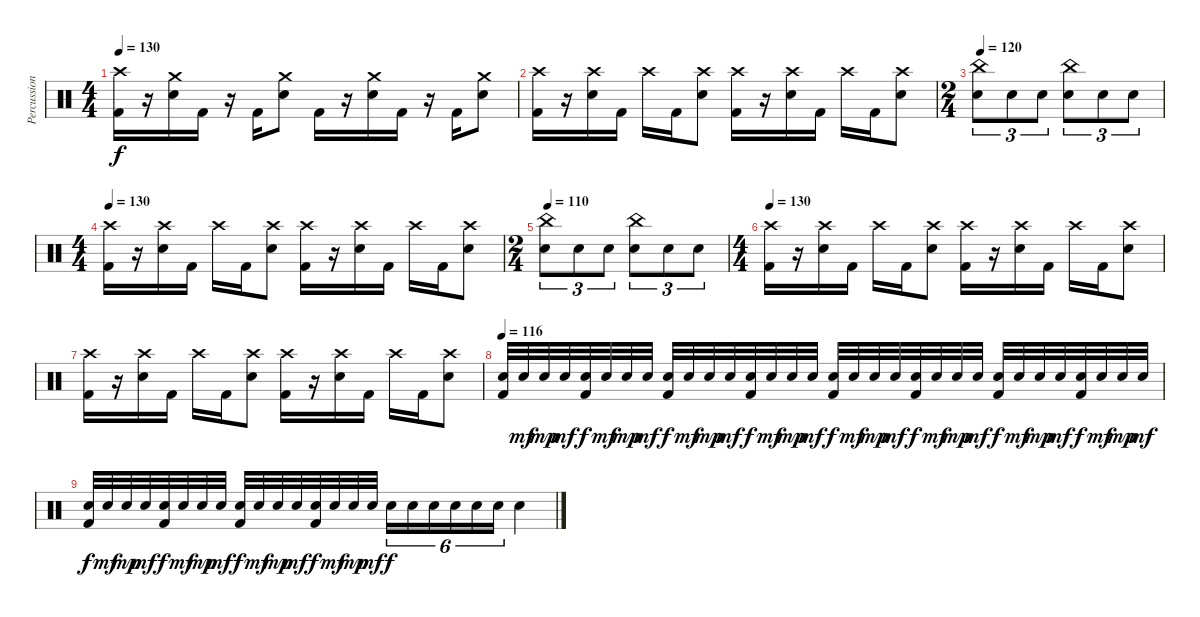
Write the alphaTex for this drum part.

\track ("Percussion" "Percussion") {instrument percussion}
\staff {score}
\articulation defaults
\ts (4 4)
\tempo 130
\clef neutral
\ks c
("Kick (hit) 2" "Crash high (hit)").16{dy f} r.16 ("Electric Snare (hit)" "Crash medium (hit)").16 "Kick (hit) 2".16 r.16 "Kick (hit) 2".16 ("Electric Snare (hit)" "Crash medium (hit)").8 "Kick (hit) 2".16 r.16 ("Electric Snare (hit)" "Crash medium (hit)").16 "Kick (hit) 2".16 r.16 "Kick (hit) 2".16 ("Electric Snare (hit)" "Crash medium (hit)").8 |
("Kick (hit) 2" "Crash high (hit)").16 r.16 ("Electric Snare (hit)" "Crash high (hit)").16 "Kick (hit) 2".16 "Crash high (hit)".16 "Kick (hit) 2".16 ("Electric Snare (hit)" "Crash high (hit)").8 ("Kick (hit) 2" "Crash high (hit)").16 r.16 ("Electric Snare (hit)" "Crash high (hit)").16 "Kick (hit) 2".16 "Crash high (hit)".16 "Kick (hit) 2".16 ("Electric Snare (hit)" "Crash high (hit)").8 |
\ts (2 4)
\tempo 120
("Electric Snare (hit)" "China (hit)").8{tu (3 2)} "Electric Snare (hit)".8{tu (3 2)} "Electric Snare (hit)".8{tu (3 2)} ("Electric Snare (hit)" "China (hit)").8{tu (3 2)} "Electric Snare (hit)".8{tu (3 2)} "Electric Snare (hit)".8{tu (3 2)} |
\ts (4 4)
\tempo 130
("Kick (hit) 2" "Crash high (hit)").16 r.16 ("Electric Snare (hit)" "Crash high (hit)").16 "Kick (hit) 2".16 "Crash high (hit)".16 "Kick (hit) 2".16 ("Electric Snare (hit)" "Crash high (hit)").8 ("Kick (hit) 2" "Crash high (hit)").16 r.16 ("Electric Snare (hit)" "Crash high (hit)").16 "Kick (hit) 2".16 "Crash high (hit)".16 "Kick (hit) 2".16 ("Electric Snare (hit)" "Crash high (hit)").8 |
\ts (2 4)
\tempo 110
("Electric Snare (hit)" "China (hit)").8{tu (3 2)} "Electric Snare (hit)".8{tu (3 2)} "Electric Snare (hit)".8{tu (3 2)} ("Electric Snare (hit)" "China (hit)").8{tu (3 2)} "Electric Snare (hit)".8{tu (3 2)} "Electric Snare (hit)".8{tu (3 2)} |
\ts (4 4)
\tempo 130
("Kick (hit) 2" "Crash high (hit)").16 r.16 ("Electric Snare (hit)" "Crash high (hit)").16 "Kick (hit) 2".16 "Crash high (hit)".16 "Kick (hit) 2".16 ("Electric Snare (hit)" "Crash high (hit)").8 ("Kick (hit) 2" "Crash high (hit)").16 r.16 ("Electric Snare (hit)" "Crash high (hit)").16 "Kick (hit) 2".16 "Crash high (hit)".16 "Kick (hit) 2".16 ("Electric Snare (hit)" "Crash high (hit)").8 |
("Kick (hit) 2" "Crash high (hit)").16 r.16 ("Electric Snare (hit)" "Crash high (hit)").16 "Kick (hit) 2".16 "Crash high (hit)".16 "Kick (hit) 2".16 ("Electric Snare (hit)" "Crash high (hit)").8 ("Kick (hit) 2" "Crash high (hit)").16 r.16 ("Electric Snare (hit)" "Crash high (hit)").16 "Kick (hit) 2".16 "Crash high (hit)".16 "Kick (hit) 2".16 ("Electric Snare (hit)" "Crash high (hit)").8 |
\tempo 116
("Kick (hit) 2" "Electric Snare (hit)").32 "Electric Snare (hit)".32{dy mf} "Electric Snare (hit)".32{dy mp} "Electric Snare (hit)".32{dy mf} ("Kick (hit) 2" "Electric Snare (hit)").32{dy f} "Electric Snare (hit)".32{dy mf} "Electric Snare (hit)".32{dy mp} "Electric Snare (hit)".32{dy mf} ("Kick (hit) 2" "Electric Snare (hit)").32{dy f} "Electric Snare (hit)".32{dy mf} "Electric Snare (hit)".32{dy mp} "Electric Snare (hit)".32{dy mf} ("Kick (hit) 2" "Electric Snare (hit)").32{dy f} "Electric Snare (hit)".32{dy mf} "Electric Snare (hit)".32{dy mp} "Electric Snare (hit)".32{dy mf} ("Kick (hit) 2" "Electric Snare (hit)").32{dy f} "Electric Snare (hit)".32{dy mf} "Electric Snare (hit)".32{dy mp} "Electric Snare (hit)".32{dy mf} ("Kick (hit) 2" "Electric Snare (hit)").32{dy f} "Electric Snare (hit)".32{dy mf} "Electric Snare (hit)".32{dy mp} "Electric Snare (hit)".32{dy mf} ("Kick (hit) 2" "Electric Snare (hit)").32{dy f} "Electric Snare (hit)".32{dy mf} "Electric Snare (hit)".32{dy mp} "Electric Snare (hit)".32{dy mf} ("Kick (hit) 2" "Electric Snare (hit)").32{dy f} "Electric Snare (hit)".32{dy mf} "Electric Snare (hit)".32{dy mp} "Electric Snare (hit)".32{dy mf} |
("Kick (hit) 2" "Electric Snare (hit)").32{dy f} "Electric Snare (hit)".32{dy mf} "Electric Snare (hit)".32{dy mp} "Electric Snare (hit)".32{dy mf} ("Kick (hit) 2" "Electric Snare (hit)").32{dy f} "Electric Snare (hit)".32{dy mf} "Electric Snare (hit)".32{dy mp} "Electric Snare (hit)".32{dy mf} ("Kick (hit) 2" "Electric Snare (hit)").32{dy f} "Electric Snare (hit)".32{dy mf} "Electric Snare (hit)".32{dy mp} "Electric Snare (hit)".32{dy mf} ("Kick (hit) 2" "Electric Snare (hit)").32{dy f} "Electric Snare (hit)".32{dy mf} "Electric Snare (hit)".32{dy mp} "Electric Snare (hit)".32{dy mf} "Electric Snare (hit)".16{tu (6 4) dy f} "Electric Snare (hit)".16{tu (6 4)} "Electric Snare (hit)".16{tu (6 4)} "Electric Snare (hit)".16{tu (6 4)} "Electric Snare (hit)".16{tu (6 4)} "Electric Snare (hit)".16{tu (6 4)} "Electric Snare (hit)".4
